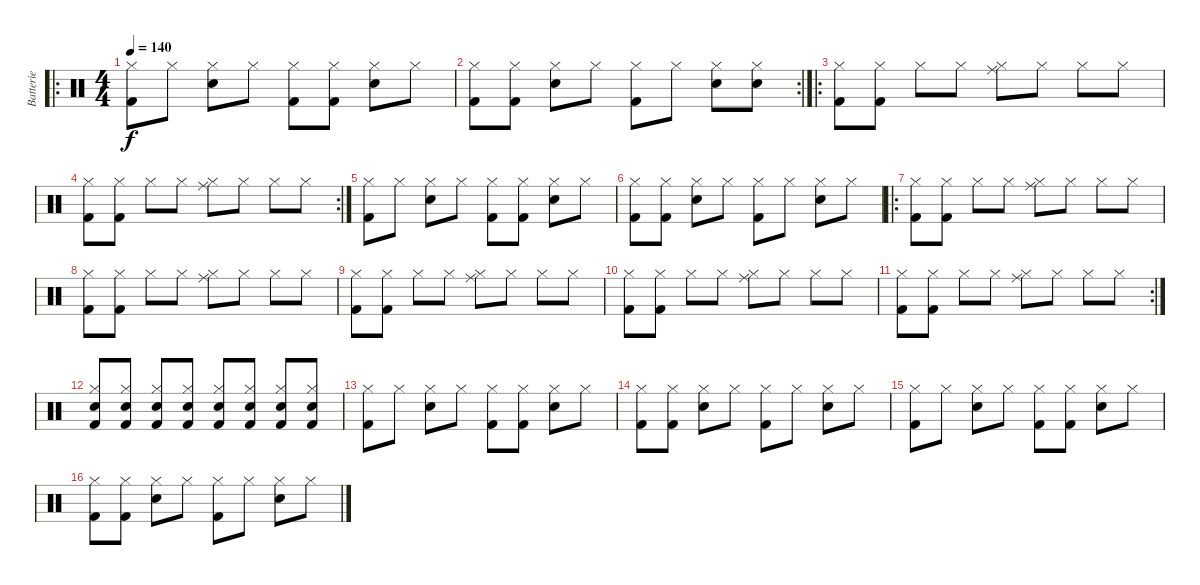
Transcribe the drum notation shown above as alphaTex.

\track ("Batterie" "Batterie") {instrument percussion}
\staff {score}
\articulation defaults
\ro
\ts (4 4)
\tempo 140
\clef neutral
\ks c
("Kick (hit) 2" "Hi-Hat (closed)").8{dy f} "Hi-Hat (closed)".8 ("Electric Snare (hit)" "Hi-Hat (closed)").8 "Hi-Hat (closed)".8 ("Kick (hit) 2" "Hi-Hat (closed)").8 ("Kick (hit) 2" "Hi-Hat (closed)").8 ("Electric Snare (hit)" "Hi-Hat (closed)").8 "Hi-Hat (closed)".8 |
\rc 2
("Kick (hit) 2" "Hi-Hat (closed)").8 ("Kick (hit) 2" "Hi-Hat (closed)").8 ("Electric Snare (hit)" "Hi-Hat (closed)").8 "Hi-Hat (closed)".8 ("Kick (hit) 2" "Hi-Hat (closed)").8 "Hi-Hat (closed)".8 ("Electric Snare (hit)" "Hi-Hat (closed)").8 ("Electric Snare (hit)" "Hi-Hat (closed)").8 |
\ro
("Kick (hit) 2" "Hi-Hat (closed)").8 ("Kick (hit) 2" "Hi-Hat (closed)").8 "Hi-Hat (closed)".8 "Hi-Hat (closed)".8 ("Ride (middle)" "Hi-Hat (closed)").8 "Hi-Hat (closed)".8 "Hi-Hat (closed)".8 "Hi-Hat (closed)".8 |
\rc 2
("Kick (hit) 2" "Hi-Hat (closed)").8 ("Kick (hit) 2" "Hi-Hat (closed)").8 "Hi-Hat (closed)".8 "Hi-Hat (closed)".8 ("Ride (middle)" "Hi-Hat (closed)").8 "Hi-Hat (closed)".8 "Hi-Hat (closed)".8 "Hi-Hat (closed)".8 |
("Kick (hit) 2" "Hi-Hat (closed)").8 "Hi-Hat (closed)".8 ("Electric Snare (hit)" "Hi-Hat (closed)").8 "Hi-Hat (closed)".8 ("Kick (hit) 2" "Hi-Hat (closed)").8 ("Kick (hit) 2" "Hi-Hat (closed)").8 ("Electric Snare (hit)" "Hi-Hat (closed)").8 "Hi-Hat (closed)".8 |
("Kick (hit) 2" "Hi-Hat (closed)").8 ("Kick (hit) 2" "Hi-Hat (closed)").8 ("Electric Snare (hit)" "Hi-Hat (closed)").8 "Hi-Hat (closed)".8 ("Kick (hit) 2" "Hi-Hat (closed)").8 "Hi-Hat (closed)".8 ("Electric Snare (hit)" "Hi-Hat (closed)").8 "Hi-Hat (closed)".8 |
\ro
("Kick (hit) 2" "Hi-Hat (closed)").8 ("Kick (hit) 2" "Hi-Hat (closed)").8 "Hi-Hat (closed)".8 "Hi-Hat (closed)".8 ("Ride (middle)" "Hi-Hat (closed)").8 "Hi-Hat (closed)".8 "Hi-Hat (closed)".8 "Hi-Hat (closed)".8 |
("Kick (hit) 2" "Hi-Hat (closed)").8 ("Kick (hit) 2" "Hi-Hat (closed)").8 "Hi-Hat (closed)".8 "Hi-Hat (closed)".8 ("Ride (middle)" "Hi-Hat (closed)").8 "Hi-Hat (closed)".8 "Hi-Hat (closed)".8 "Hi-Hat (closed)".8 |
("Kick (hit) 2" "Hi-Hat (closed)").8 ("Kick (hit) 2" "Hi-Hat (closed)").8 "Hi-Hat (closed)".8 "Hi-Hat (closed)".8 ("Ride (middle)" "Hi-Hat (closed)").8 "Hi-Hat (closed)".8 "Hi-Hat (closed)".8 "Hi-Hat (closed)".8 |
("Kick (hit) 2" "Hi-Hat (closed)").8 ("Kick (hit) 2" "Hi-Hat (closed)").8 "Hi-Hat (closed)".8 "Hi-Hat (closed)".8 ("Ride (middle)" "Hi-Hat (closed)").8 "Hi-Hat (closed)".8 "Hi-Hat (closed)".8 "Hi-Hat (closed)".8 |
\rc 2
("Kick (hit) 2" "Hi-Hat (closed)").8 ("Kick (hit) 2" "Hi-Hat (closed)").8 "Hi-Hat (closed)".8 "Hi-Hat (closed)".8 ("Ride (middle)" "Hi-Hat (closed)").8 "Hi-Hat (closed)".8 "Hi-Hat (closed)".8 "Hi-Hat (closed)".8 |
("Kick (hit) 2" "Electric Snare (hit)" "Hi-Hat (closed)").8 ("Kick (hit) 2" "Electric Snare (hit)" "Hi-Hat (closed)").8 ("Kick (hit) 2" "Electric Snare (hit)" "Hi-Hat (closed)").8 ("Kick (hit) 2" "Electric Snare (hit)" "Hi-Hat (closed)").8 ("Kick (hit) 2" "Electric Snare (hit)" "Hi-Hat (closed)").8 ("Kick (hit) 2" "Electric Snare (hit)" "Hi-Hat (closed)").8 ("Kick (hit) 2" "Electric Snare (hit)" "Hi-Hat (closed)").8 ("Kick (hit) 2" "Electric Snare (hit)" "Hi-Hat (closed)").8 |
("Kick (hit) 2" "Hi-Hat (closed)").8 "Hi-Hat (closed)".8 ("Electric Snare (hit)" "Hi-Hat (closed)").8 "Hi-Hat (closed)".8 ("Kick (hit) 2" "Hi-Hat (closed)").8 ("Kick (hit) 2" "Hi-Hat (closed)").8 ("Electric Snare (hit)" "Hi-Hat (closed)").8 "Hi-Hat (closed)".8 |
("Kick (hit) 2" "Hi-Hat (closed)").8 ("Kick (hit) 2" "Hi-Hat (closed)").8 ("Electric Snare (hit)" "Hi-Hat (closed)").8 "Hi-Hat (closed)".8 ("Kick (hit) 2" "Hi-Hat (closed)").8 "Hi-Hat (closed)".8 ("Electric Snare (hit)" "Hi-Hat (closed)").8 "Hi-Hat (closed)".8 |
("Kick (hit) 2" "Hi-Hat (closed)").8 "Hi-Hat (closed)".8 ("Electric Snare (hit)" "Hi-Hat (closed)").8 "Hi-Hat (closed)".8 ("Kick (hit) 2" "Hi-Hat (closed)").8 ("Kick (hit) 2" "Hi-Hat (closed)").8 ("Electric Snare (hit)" "Hi-Hat (closed)").8 "Hi-Hat (closed)".8 |
("Kick (hit) 2" "Hi-Hat (closed)").8 ("Kick (hit) 2" "Hi-Hat (closed)").8 ("Electric Snare (hit)" "Hi-Hat (closed)").8 "Hi-Hat (closed)".8 ("Kick (hit) 2" "Hi-Hat (closed)").8 "Hi-Hat (closed)".8 ("Electric Snare (hit)" "Hi-Hat (closed)").8 "Hi-Hat (closed)".8
